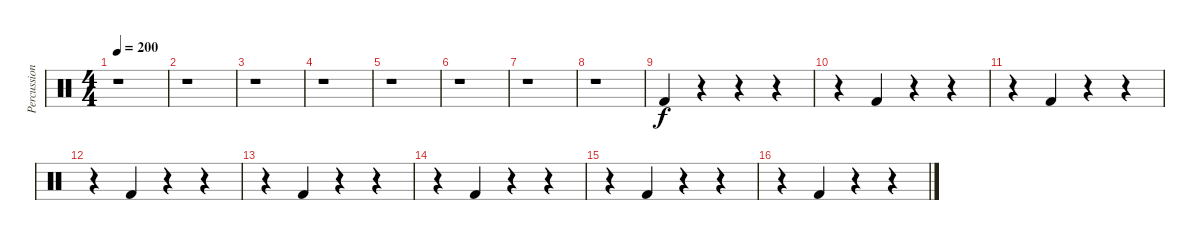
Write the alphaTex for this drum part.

\track ("Percussion" "Percussion") {instrument percussion}
\staff {score}
\articulation defaults
\ts (4 4)
\tempo 200
\clef neutral
\ks c
r.1{dy f} |
r.1 |
r.1 |
r.1 |
r.1 |
r.1 |
r.1 |
r.1 |
"Kick (hit) 2".4 r.4 r.4 r.4 |
r.4 "Kick (hit) 2".4 r.4 r.4 |
r.4 "Kick (hit) 2".4 r.4 r.4 |
r.4 "Kick (hit) 2".4 r.4 r.4 |
r.4 "Kick (hit) 2".4 r.4 r.4 |
r.4 "Kick (hit) 2".4 r.4 r.4 |
r.4 "Kick (hit) 2".4 r.4 r.4 |
r.4 "Kick (hit) 2".4 r.4 r.4
